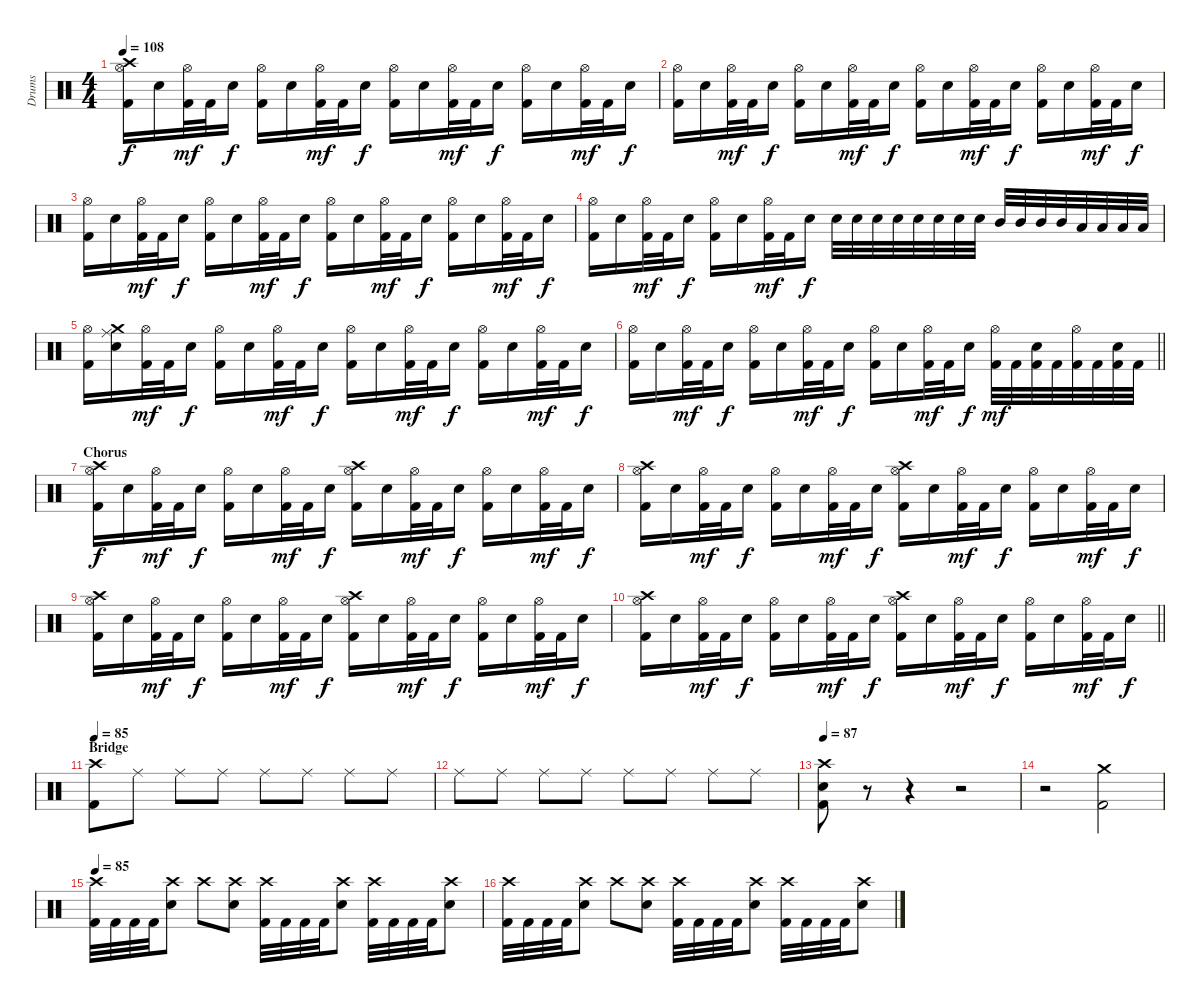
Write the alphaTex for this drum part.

\track ("Drums" "Drums") {instrument percussion}
\staff {score}
\articulation defaults
\ts (4 4)
\tempo 108
\clef neutral
\ks c
("Crash high (hit)" "Hi-Hat (open)" "Kick (hit) 2").16{dy f} "Electric Snare (hit)".16 ("Hi-Hat (open)" "Kick (hit) 2").32{dy mf} "Kick (hit) 2".32 "Electric Snare (hit)".16{dy f} ("Hi-Hat (open)" "Kick (hit) 2").16 "Electric Snare (hit)".16 ("Hi-Hat (open)" "Kick (hit) 2").32{dy mf} "Kick (hit) 2".32 "Electric Snare (hit)".16{dy f} ("Hi-Hat (open)" "Kick (hit) 2").16 "Electric Snare (hit)".16 ("Hi-Hat (open)" "Kick (hit) 2").32{dy mf} "Kick (hit) 2".32 "Electric Snare (hit)".16{dy f} ("Hi-Hat (open)" "Kick (hit) 2").16 "Electric Snare (hit)".16 ("Hi-Hat (open)" "Kick (hit) 2").32{dy mf} "Kick (hit) 2".32 "Electric Snare (hit)".16{dy f} |
("Hi-Hat (open)" "Kick (hit) 2").16 "Electric Snare (hit)".16 ("Hi-Hat (open)" "Kick (hit) 2").32{dy mf} "Kick (hit) 2".32 "Electric Snare (hit)".16{dy f} ("Hi-Hat (open)" "Kick (hit) 2").16 "Electric Snare (hit)".16 ("Hi-Hat (open)" "Kick (hit) 2").32{dy mf} "Kick (hit) 2".32 "Electric Snare (hit)".16{dy f} ("Hi-Hat (open)" "Kick (hit) 2").16 "Electric Snare (hit)".16 ("Hi-Hat (open)" "Kick (hit) 2").32{dy mf} "Kick (hit) 2".32 "Electric Snare (hit)".16{dy f} ("Hi-Hat (open)" "Kick (hit) 2").16 "Electric Snare (hit)".16 ("Hi-Hat (open)" "Kick (hit) 2").32{dy mf} "Kick (hit) 2".32 "Electric Snare (hit)".16{dy f} |
("Hi-Hat (open)" "Kick (hit) 2").16 "Electric Snare (hit)".16 ("Hi-Hat (open)" "Kick (hit) 2").32{dy mf} "Kick (hit) 2".32 "Electric Snare (hit)".16{dy f} ("Hi-Hat (open)" "Kick (hit) 2").16 "Electric Snare (hit)".16 ("Hi-Hat (open)" "Kick (hit) 2").32{dy mf} "Kick (hit) 2".32 "Electric Snare (hit)".16{dy f} ("Hi-Hat (open)" "Kick (hit) 2").16 "Electric Snare (hit)".16 ("Hi-Hat (open)" "Kick (hit) 2").32{dy mf} "Kick (hit) 2".32 "Electric Snare (hit)".16{dy f} ("Hi-Hat (open)" "Kick (hit) 2").16 "Electric Snare (hit)".16 ("Hi-Hat (open)" "Kick (hit) 2").32{dy mf} "Kick (hit) 2".32 "Electric Snare (hit)".16{dy f} |
("Hi-Hat (open)" "Kick (hit) 2").16 "Electric Snare (hit)".16 ("Hi-Hat (open)" "Kick (hit) 2").32{dy mf} "Kick (hit) 2".32 "Electric Snare (hit)".16{dy f} ("Hi-Hat (open)" "Kick (hit) 2").16 "Electric Snare (hit)".16 ("Hi-Hat (open)" "Kick (hit) 2").32{dy mf} "Kick (hit) 2".32 "Electric Snare (hit)".16{dy f} "Electric Snare (hit)".32 "Electric Snare (hit)".32 "Electric Snare (hit)".32 "Electric Snare (hit)".32 "Electric Snare (hit)".32 "Electric Snare (hit)".32 "Electric Snare (hit)".32 "Electric Snare (hit)".32 "Mid Tom (hit)".32 "Mid Tom (hit)".32 "Mid Tom (hit)".32 "Mid Tom (hit)".32 "Low Tom (hit)".32 "Low Tom (hit)".32 "Low Tom (hit)".32 "Low Tom (hit)".32 |
("Hi-Hat (open)" "Kick (hit) 2").16 ("Crash medium (hit)" "Ride (middle)" "Electric Snare (hit)").16 ("Hi-Hat (open)" "Kick (hit) 2").32{dy mf} "Kick (hit) 2".32 "Electric Snare (hit)".16{dy f} ("Hi-Hat (open)" "Kick (hit) 2").16 "Electric Snare (hit)".16 ("Hi-Hat (open)" "Kick (hit) 2").32{dy mf} "Kick (hit) 2".32 "Electric Snare (hit)".16{dy f} ("Hi-Hat (open)" "Kick (hit) 2").16 "Electric Snare (hit)".16 ("Hi-Hat (open)" "Kick (hit) 2").32{dy mf} "Kick (hit) 2".32 "Electric Snare (hit)".16{dy f} ("Hi-Hat (open)" "Kick (hit) 2").16 "Electric Snare (hit)".16 ("Hi-Hat (open)" "Kick (hit) 2").32{dy mf} "Kick (hit) 2".32 "Electric Snare (hit)".16{dy f} |
\barLineRight lightlight
("Hi-Hat (open)" "Kick (hit) 2").16 "Electric Snare (hit)".16 ("Hi-Hat (open)" "Kick (hit) 2").32{dy mf} "Kick (hit) 2".32 "Electric Snare (hit)".16{dy f} ("Hi-Hat (open)" "Kick (hit) 2").16 "Electric Snare (hit)".16 ("Hi-Hat (open)" "Kick (hit) 2").32{dy mf} "Kick (hit) 2".32 "Electric Snare (hit)".16{dy f} ("Hi-Hat (open)" "Kick (hit) 2").16 "Electric Snare (hit)".16 ("Hi-Hat (open)" "Kick (hit) 2").32{dy mf} "Kick (hit) 2".32 "Electric Snare (hit)".16{dy f} ("Hi-Hat (open)" "Kick (hit) 2").32{dy mf} "Kick (hit) 2".32 ("Electric Snare (hit)" "Kick (hit) 2").32 "Kick (hit) 2".32 ("Hi-Hat (open)" "Kick (hit) 2").32 "Kick (hit) 2".32 ("Electric Snare (hit)" "Kick (hit) 2").32 "Kick (hit) 2".32 |
\section ("" "Chorus")
("Crash high (hit)" "Hi-Hat (open)" "Kick (hit) 2").16{dy f} "Electric Snare (hit)".16 ("Hi-Hat (open)" "Kick (hit) 2").32{dy mf} "Kick (hit) 2".32 "Electric Snare (hit)".16{dy f} ("Hi-Hat (open)" "Kick (hit) 2").16 "Electric Snare (hit)".16 ("Hi-Hat (open)" "Kick (hit) 2").32{dy mf} "Kick (hit) 2".32 "Electric Snare (hit)".16{dy f} ("Crash high (hit)" "Hi-Hat (open)" "Kick (hit) 2").16 "Electric Snare (hit)".16 ("Hi-Hat (open)" "Kick (hit) 2").32{dy mf} "Kick (hit) 2".32 "Electric Snare (hit)".16{dy f} ("Hi-Hat (open)" "Kick (hit) 2").16 "Electric Snare (hit)".16 ("Hi-Hat (open)" "Kick (hit) 2").32{dy mf} "Kick (hit) 2".32 "Electric Snare (hit)".16{dy f} |
("Crash high (hit)" "Hi-Hat (open)" "Kick (hit) 2").16 "Electric Snare (hit)".16 ("Hi-Hat (open)" "Kick (hit) 2").32{dy mf} "Kick (hit) 2".32 "Electric Snare (hit)".16{dy f} ("Hi-Hat (open)" "Kick (hit) 2").16 "Electric Snare (hit)".16 ("Hi-Hat (open)" "Kick (hit) 2").32{dy mf} "Kick (hit) 2".32 "Electric Snare (hit)".16{dy f} ("Crash high (hit)" "Hi-Hat (open)" "Kick (hit) 2").16 "Electric Snare (hit)".16 ("Hi-Hat (open)" "Kick (hit) 2").32{dy mf} "Kick (hit) 2".32 "Electric Snare (hit)".16{dy f} ("Hi-Hat (open)" "Kick (hit) 2").16 "Electric Snare (hit)".16 ("Hi-Hat (open)" "Kick (hit) 2").32{dy mf} "Kick (hit) 2".32 "Electric Snare (hit)".16{dy f} |
("Crash high (hit)" "Hi-Hat (open)" "Kick (hit) 2").16 "Electric Snare (hit)".16 ("Hi-Hat (open)" "Kick (hit) 2").32{dy mf} "Kick (hit) 2".32 "Electric Snare (hit)".16{dy f} ("Hi-Hat (open)" "Kick (hit) 2").16 "Electric Snare (hit)".16 ("Hi-Hat (open)" "Kick (hit) 2").32{dy mf} "Kick (hit) 2".32 "Electric Snare (hit)".16{dy f} ("Crash high (hit)" "Hi-Hat (open)" "Kick (hit) 2").16 "Electric Snare (hit)".16 ("Hi-Hat (open)" "Kick (hit) 2").32{dy mf} "Kick (hit) 2".32 "Electric Snare (hit)".16{dy f} ("Hi-Hat (open)" "Kick (hit) 2").16 "Electric Snare (hit)".16 ("Hi-Hat (open)" "Kick (hit) 2").32{dy mf} "Kick (hit) 2".32 "Electric Snare (hit)".16{dy f} |
\barLineRight lightlight
("Crash high (hit)" "Hi-Hat (open)" "Kick (hit) 2").16 "Electric Snare (hit)".16 ("Hi-Hat (open)" "Kick (hit) 2").32{dy mf} "Kick (hit) 2".32 "Electric Snare (hit)".16{dy f} ("Hi-Hat (open)" "Kick (hit) 2").16 "Electric Snare (hit)".16 ("Hi-Hat (open)" "Kick (hit) 2").32{dy mf} "Kick (hit) 2".32 "Electric Snare (hit)".16{dy f} ("Crash high (hit)" "Hi-Hat (open)" "Kick (hit) 2").16 "Electric Snare (hit)".16 ("Hi-Hat (open)" "Kick (hit) 2").32{dy mf} "Kick (hit) 2".32 "Electric Snare (hit)".16{dy f} ("Hi-Hat (open)" "Kick (hit) 2").16 "Electric Snare (hit)".16 ("Hi-Hat (open)" "Kick (hit) 2").32{dy mf} "Kick (hit) 2".32 "Electric Snare (hit)".16{dy f} |
\section ("" "Bridge")
\tempo 85
("Crash high (hit)" "Kick (hit) 2").8 "Ride (middle)".8 "Ride (middle)".8 "Ride (middle)".8 "Ride (middle)".8 "Ride (middle)".8 "Ride (middle)".8 "Ride (middle)".8 |
"Ride (middle)".8 "Ride (middle)".8 "Ride (middle)".8 "Ride (middle)".8 "Ride (middle)".8 "Ride (middle)".8 "Ride (middle)".8 "Ride (middle)".8 |
\tempo 87
("Crash high (hit)" "Electric Snare (hit)" "Kick (hit) 2").8 r.8{volume 0} r.4{volume 13} r.2 |
r.2 ("Crash medium (hit)" "Kick (hit) 2").2 |
\tempo 85
("Crash high (hit)" "Kick (hit) 2").32 "Kick (hit) 2".32 "Kick (hit) 2".32 "Kick (hit) 2".32 ("Crash high (hit)" "Electric Snare (hit)").8 "Crash high (hit)".8 ("Crash high (hit)" "Electric Snare (hit)").8 ("Crash high (hit)" "Kick (hit) 2").32 "Kick (hit) 2".32 "Kick (hit) 2".32 "Kick (hit) 2".32 ("Crash high (hit)" "Electric Snare (hit)").8 ("Crash high (hit)" "Kick (hit) 2").32 "Kick (hit) 2".32 "Kick (hit) 2".32 "Kick (hit) 2".32 ("Crash high (hit)" "Electric Snare (hit)").8 |
("Crash high (hit)" "Kick (hit) 2").32 "Kick (hit) 2".32 "Kick (hit) 2".32 "Kick (hit) 2".32 ("Crash high (hit)" "Electric Snare (hit)").8 "Crash high (hit)".8 ("Crash high (hit)" "Electric Snare (hit)").8 ("Crash high (hit)" "Kick (hit) 2").32 "Kick (hit) 2".32 "Kick (hit) 2".32 "Kick (hit) 2".32 ("Crash high (hit)" "Electric Snare (hit)").8 ("Crash high (hit)" "Kick (hit) 2").32 "Kick (hit) 2".32 "Kick (hit) 2".32 "Kick (hit) 2".32 ("Crash high (hit)" "Electric Snare (hit)").8
